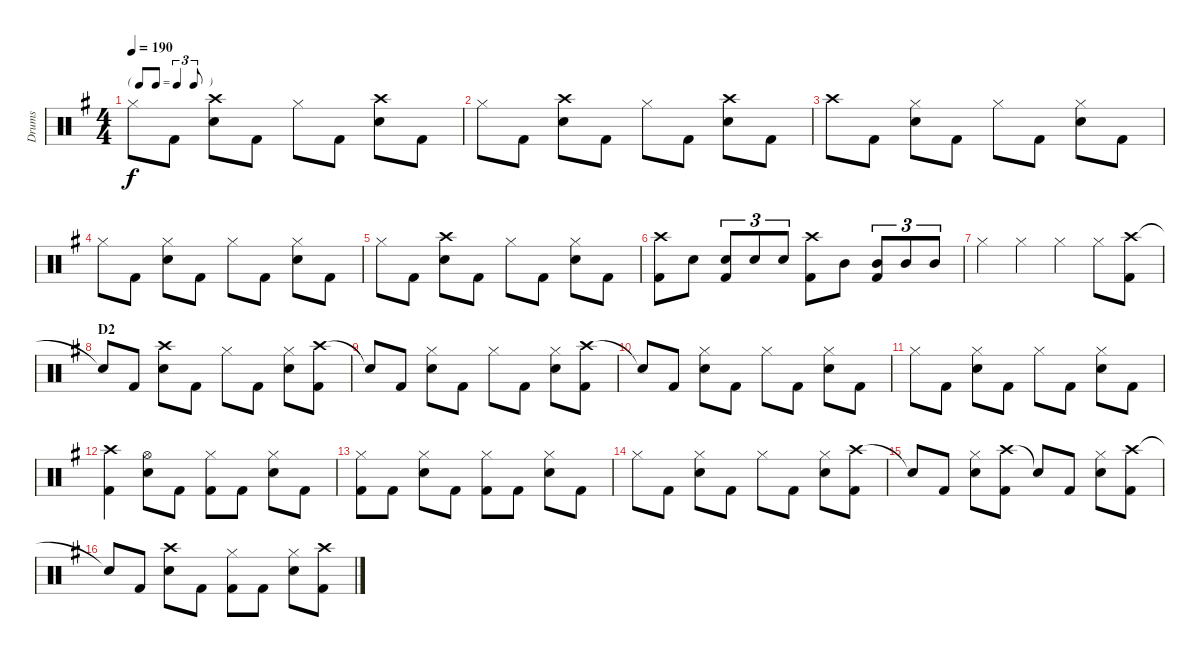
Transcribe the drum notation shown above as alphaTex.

\track ("Drums" "Drums") {instrument percussion}
\staff {score}
\articulation defaults
\ts (4 4)
\tf triplet8th
\tempo 190
\clef neutral
\ks g "Hi-Hat (closed)".8{dy f} "Kick (hit) 2".8
("Crash high (hit)" "Snare (hit) 2").8 "Kick (hit) 2".8 "Hi-Hat (closed)".8 "Kick (hit) 2".8 ("Crash high (hit)" "Snare (hit) 2").8 "Kick (hit) 2".8 |
"Hi-Hat (closed)".8 "Kick (hit) 2".8 ("Crash high (hit)" "Snare (hit) 2").8 "Kick (hit) 2".8 "Hi-Hat (closed)".8 "Kick (hit) 2".8 ("Crash high (hit)" "Snare (hit) 2").8 "Kick (hit) 2".8 |
"Crash high (hit)".8 "Kick (hit) 2".8 ("Hi-Hat (closed)" "Snare (hit) 2").8 "Kick (hit) 2".8 "Hi-Hat (closed)".8 "Kick (hit) 2".8 ("Hi-Hat (closed)" "Snare (hit) 2").8 "Kick (hit) 2".8 |
"Hi-Hat (closed)".8 "Kick (hit) 2".8 ("Hi-Hat (closed)" "Snare (hit) 2").8 "Kick (hit) 2".8 "Hi-Hat (closed)".8 "Kick (hit) 2".8 ("Hi-Hat (closed)" "Snare (hit) 2").8 "Kick (hit) 2".8 |
"Hi-Hat (closed)".8 "Kick (hit) 2".8 ("Crash high (hit)" "Snare (hit) 2").8 "Kick (hit) 2".8 "Hi-Hat (closed)".8 "Kick (hit) 2".8 ("Hi-Hat (closed)" "Snare (hit) 2").8 "Kick (hit) 2".8 |
("Crash high (hit)" "Kick (hit) 2").8 "Snare (hit) 2".8 ("Snare (hit) 2" "Kick (hit) 2").8{tu (3 2)} "Snare (hit) 2".8{tu (3 2)} "Snare (hit) 2".8{tu (3 2)} ("Crash high (hit)" "Kick (hit) 2").8 "Mid Tom (hit)".8 ("Mid Tom (hit)" "Kick (hit) 2").8{tu (3 2)} "Mid Tom (hit)".8{tu (3 2)} "Mid Tom (hit)".8{tu (3 2)} |
"Hi-Hat (closed)".4 "Hi-Hat (closed)".4 "Hi-Hat (closed)".4 "Hi-Hat (closed)".8 ("Crash high (hit)" "Kick (hit) 2").8 |
\section ("" "D2")
"Snare (hit)"{t}.8 "Kick (hit) 2".8 ("Crash high (hit)" "Snare (hit) 2").8 "Kick (hit) 2".8 "Hi-Hat (closed)".8 "Kick (hit) 2".8 ("Hi-Hat (closed)" "Snare (hit) 2").8 ("Crash high (hit)" "Kick (hit) 2").8 |
"Snare (hit)"{t}.8 "Kick (hit) 2".8 ("Hi-Hat (closed)" "Snare (hit) 2").8 "Kick (hit) 2".8 "Hi-Hat (closed)".8 "Kick (hit) 2".8 ("Hi-Hat (closed)" "Snare (hit) 2").8 ("Crash high (hit)" "Kick (hit) 2").8 |
"Snare (hit)"{t}.8 "Kick (hit) 2".8 ("Hi-Hat (closed)" "Snare (hit) 2").8 "Kick (hit) 2".8 "Hi-Hat (closed)".8 "Kick (hit) 2".8 ("Hi-Hat (closed)" "Snare (hit) 2").8 "Kick (hit) 2".8 |
"Hi-Hat (closed)".8 "Kick (hit) 2".8 ("Hi-Hat (closed)" "Snare (hit) 2").8 "Kick (hit) 2".8 "Hi-Hat (closed)".8 "Kick (hit) 2".8 ("Hi-Hat (closed)" "Snare (hit) 2").8 "Kick (hit) 2".8 |
("Crash high (hit)" "Kick (hit) 2").4 ("Hi-Hat (open)" "Snare (hit) 2").8 "Kick (hit) 2".8 ("Hi-Hat (closed)" "Kick (hit) 2").8 "Kick (hit) 2".8 ("Hi-Hat (closed)" "Snare (hit) 2").8 "Kick (hit) 2".8 |
("Hi-Hat (closed)" "Kick (hit) 2").8 "Kick (hit) 2".8 ("Hi-Hat (closed)" "Snare (hit) 2").8 "Kick (hit) 2".8 ("Hi-Hat (closed)" "Kick (hit) 2").8 "Kick (hit) 2".8 ("Hi-Hat (closed)" "Snare (hit) 2").8 "Kick (hit) 2".8 |
"Hi-Hat (closed)".8 "Kick (hit) 2".8 ("Hi-Hat (closed)" "Snare (hit) 2").8 "Kick (hit) 2".8 "Hi-Hat (closed)".8 "Kick (hit) 2".8 ("Hi-Hat (closed)" "Snare (hit) 2").8 ("Crash high (hit)" "Kick (hit) 2").8 |
"Snare (hit)"{t}.8 "Kick (hit) 2".8 ("Hi-Hat (closed)" "Snare (hit) 2").8 ("Crash high (hit)" "Kick (hit) 2").8 "Snare (hit)"{t}.8 "Kick (hit) 2".8 ("Hi-Hat (closed)" "Snare (hit) 2").8 ("Crash high (hit)" "Kick (hit) 2").8 |
"Snare (hit)"{t}.8 "Kick (hit) 2".8 ("Crash high (hit)" "Snare (hit) 2").8 "Kick (hit) 2".8 ("Hi-Hat (closed)" "Kick (hit) 2").8 "Kick (hit) 2".8 ("Hi-Hat (closed)" "Snare (hit) 2").8 ("Crash high (hit)" "Kick (hit) 2").8
